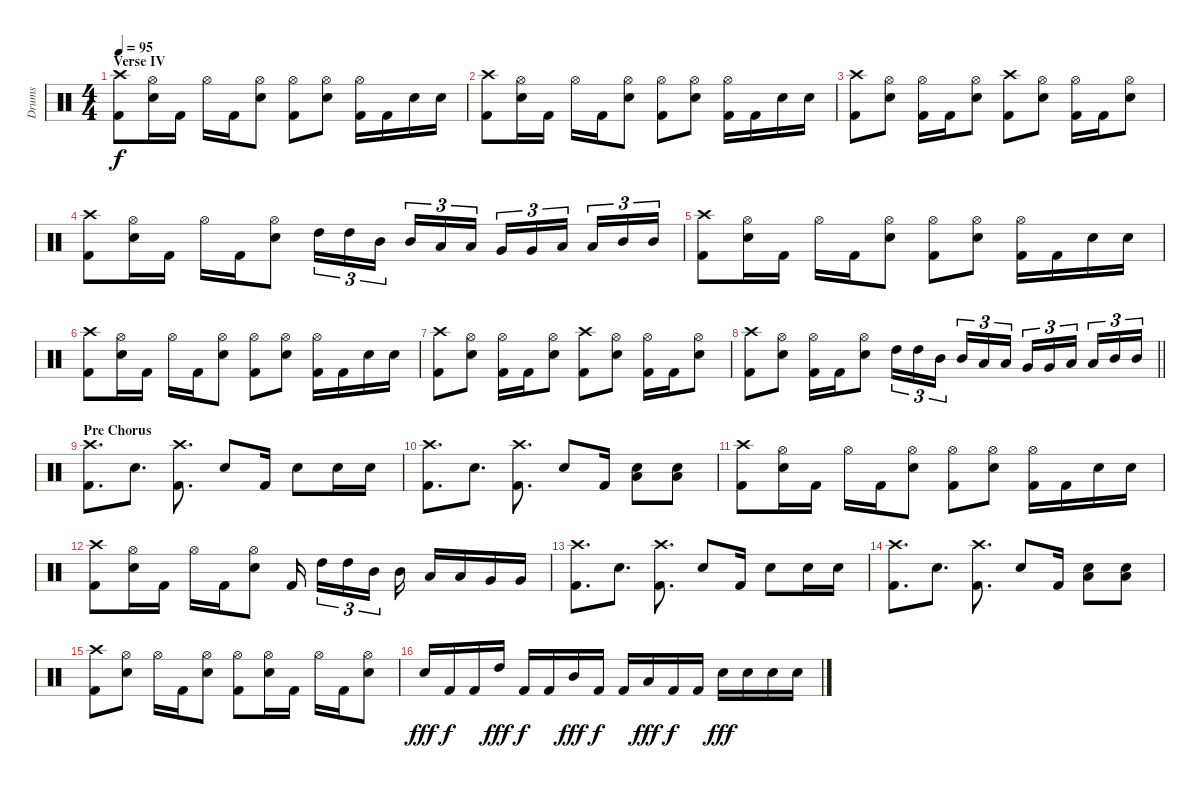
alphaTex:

\track ("Drums" "Drums") {instrument percussion}
\staff {score}
\articulation defaults
\ts (4 4)
\section ("" "Verse IV")
\tempo 95
\clef neutral
\ks c
("Crash high (hit)" "Kick (hit) 2").8{dy f} ("Hi-Hat (open)" "Snare (hit) 2").16 "Kick (hit) 2".16 "Hi-Hat (open)".16 "Kick (hit) 2".16 ("Hi-Hat (open)" "Snare (hit) 2").8 ("Hi-Hat (open)" "Kick (hit) 2").8 ("Hi-Hat (open)" "Snare (hit) 2").8 ("Hi-Hat (open)" "Kick (hit) 2").16 "Kick (hit) 2".16 "Snare (hit) 2".16 "Snare (hit) 2".16 |
("Crash high (hit)" "Kick (hit) 2").8 ("Hi-Hat (open)" "Snare (hit) 2").16 "Kick (hit) 2".16 "Hi-Hat (open)".16 "Kick (hit) 2".16 ("Hi-Hat (open)" "Snare (hit) 2").8 ("Hi-Hat (open)" "Kick (hit) 2").8 ("Hi-Hat (open)" "Snare (hit) 2").8 ("Hi-Hat (open)" "Kick (hit) 2").16 "Kick (hit) 2".16 "Snare (hit) 2".16 "Snare (hit) 2".16 |
("Crash high (hit)" "Kick (hit) 2").8 ("Hi-Hat (open)" "Snare (hit) 2").8 ("Hi-Hat (open)" "Kick (hit) 2").16 "Kick (hit) 2".16 ("Hi-Hat (open)" "Snare (hit) 2").8 ("Crash high (hit)" "Kick (hit) 2").8 ("Hi-Hat (open)" "Snare (hit) 2").8 ("Hi-Hat (open)" "Kick (hit) 2").16 "Kick (hit) 2".16 ("Hi-Hat (open)" "Snare (hit) 2").8 |
("Crash high (hit)" "Kick (hit) 2").8 ("Hi-Hat (open)" "Snare (hit) 2").16 "Kick (hit) 2".16 "Hi-Hat (open)".16 "Kick (hit) 2".16 ("Hi-Hat (open)" "Snare (hit) 2").8 "High Tom (hit)".16{tu (3 2)} "High Tom (hit)".16{tu (3 2)} "Mid Tom (hit)".16{tu (3 2) beam splitsecondary} "Mid Tom (hit)".16{tu (3 2)} "Low Tom (hit)".16{tu (3 2)} "Low Tom (hit)".16{tu (3 2)} "Very Low Tom (hit)".16{tu (3 2)} "Very Low Tom (hit)".16{tu (3 2)} "Low Tom (hit)".16{tu (3 2) beam splitsecondary} "Low Tom (hit)".16{tu (3 2)} "Mid Tom (hit)".16{tu (3 2)} "Mid Tom (hit)".16{tu (3 2)} |
("Crash high (hit)" "Kick (hit) 2").8 ("Hi-Hat (open)" "Snare (hit) 2").16 "Kick (hit) 2".16 "Hi-Hat (open)".16 "Kick (hit) 2".16 ("Hi-Hat (open)" "Snare (hit) 2").8 ("Hi-Hat (open)" "Kick (hit) 2").8 ("Hi-Hat (open)" "Snare (hit) 2").8 ("Hi-Hat (open)" "Kick (hit) 2").16 "Kick (hit) 2".16 "Snare (hit) 2".16 "Snare (hit) 2".16 |
("Crash high (hit)" "Kick (hit) 2").8 ("Hi-Hat (open)" "Snare (hit) 2").16 "Kick (hit) 2".16 "Hi-Hat (open)".16 "Kick (hit) 2".16 ("Hi-Hat (open)" "Snare (hit) 2").8 ("Hi-Hat (open)" "Kick (hit) 2").8 ("Hi-Hat (open)" "Snare (hit) 2").8 ("Hi-Hat (open)" "Kick (hit) 2").16 "Kick (hit) 2".16 "Snare (hit) 2".16 "Snare (hit) 2".16 |
("Crash high (hit)" "Kick (hit) 2").8 ("Hi-Hat (open)" "Snare (hit) 2").8 ("Hi-Hat (open)" "Kick (hit) 2").16 "Kick (hit) 2".16 ("Hi-Hat (open)" "Snare (hit) 2").8 ("Crash high (hit)" "Kick (hit) 2").8 ("Hi-Hat (open)" "Snare (hit) 2").8 ("Hi-Hat (open)" "Kick (hit) 2").16 "Kick (hit) 2".16 ("Hi-Hat (open)" "Snare (hit) 2").8 |
\barLineRight lightlight
("Crash high (hit)" "Kick (hit) 2").8 ("Hi-Hat (open)" "Snare (hit) 2").8 ("Hi-Hat (open)" "Kick (hit) 2").16 "Kick (hit) 2".16 ("Hi-Hat (open)" "Snare (hit) 2").8 "High Tom (hit)".16{tu (3 2)} "High Tom (hit)".16{tu (3 2)} "Mid Tom (hit)".16{tu (3 2) beam splitsecondary} "Mid Tom (hit)".16{tu (3 2)} "Low Tom (hit)".16{tu (3 2)} "Low Tom (hit)".16{tu (3 2)} "Very Low Tom (hit)".16{tu (3 2)} "Very Low Tom (hit)".16{tu (3 2)} "Low Tom (hit)".16{tu (3 2) beam splitsecondary} "Low Tom (hit)".16{tu (3 2)} "Mid Tom (hit)".16{tu (3 2)} "Mid Tom (hit)".16{tu (3 2)} |
\section ("" "Pre Chorus")
("Kick (hit) 2" "Crash high (hit)").8{d} "Snare (hit) 2".8{d} ("Kick (hit) 2" "Crash high (hit)").8{d} "Snare (hit) 2".8 "Kick (hit) 2".16 "Snare (hit) 2".8 "Snare (hit) 2".16 "Snare (hit) 2".16 |
("Kick (hit) 2" "Crash high (hit)").8{d} "Snare (hit) 2".8{d} ("Kick (hit) 2" "Crash high (hit)").8{d} "Snare (hit) 2".8 "Kick (hit) 2".16 ("Snare (hit) 2" "Low Tom (hit)").8 ("Snare (hit) 2" "Low Tom (hit)").8 |
("Crash high (hit)" "Kick (hit) 2").8 ("Hi-Hat (open)" "Snare (hit) 2").16 "Kick (hit) 2".16 "Hi-Hat (open)".16 "Kick (hit) 2".16 ("Hi-Hat (open)" "Snare (hit) 2").8 ("Hi-Hat (open)" "Kick (hit) 2").8 ("Hi-Hat (open)" "Snare (hit) 2").8 ("Hi-Hat (open)" "Kick (hit) 2").16 "Kick (hit) 2".16 "Snare (hit) 2".16 "Snare (hit) 2".16 |
("Crash high (hit)" "Kick (hit) 2").8 ("Hi-Hat (open)" "Snare (hit) 2").16 "Kick (hit) 2".16 "Hi-Hat (open)".16 "Kick (hit) 2".16 ("Hi-Hat (open)" "Snare (hit) 2").8 "Kick (hit) 2".16{beam splitsecondary} "High Tom (hit)".16{tu (3 2)} "High Tom (hit)".16{tu (3 2)} "Mid Tom (hit)".16{tu (3 2) beam splitsecondary} "Mid Tom (hit)".16 "Low Tom (hit)".16 "Low Tom (hit)".16 "Very Low Tom (hit)".16 "Very Low Tom (hit)".16 |
("Kick (hit) 2" "Crash high (hit)").8{d} "Snare (hit) 2".8{d} ("Kick (hit) 2" "Crash high (hit)").8{d} "Snare (hit) 2".8 "Kick (hit) 2".16 "Snare (hit) 2".8 "Snare (hit) 2".16 "Snare (hit) 2".16 |
("Kick (hit) 2" "Crash high (hit)").8{d} "Snare (hit) 2".8{d} ("Kick (hit) 2" "Crash high (hit)").8{d} "Snare (hit) 2".8 "Kick (hit) 2".16 ("Snare (hit) 2" "Low Tom (hit)").8 ("Snare (hit) 2" "Low Tom (hit)").8 |
("Crash high (hit)" "Kick (hit) 2").8 ("Hi-Hat (open)" "Snare (hit) 2").8 "Hi-Hat (open)".16 "Kick (hit) 2".16 ("Hi-Hat (open)" "Snare (hit) 2").8 ("Hi-Hat (open)" "Kick (hit) 2").8 ("Hi-Hat (open)" "Snare (hit) 2").16 "Kick (hit) 2".16 "Hi-Hat (open)".16 "Kick (hit) 2".16 ("Hi-Hat (open)" "Snare (hit) 2").8 |
"Snare (hit) 2".16{dy fff} "Kick (hit) 2".16{dy f} "Kick (hit) 2".16 "High Tom (hit)".16{dy fff} "Kick (hit) 2".16{dy f} "Kick (hit) 2".16 "Mid Tom (hit)".16{dy fff} "Kick (hit) 2".16{dy f} "Kick (hit) 2".16 "Low Tom (hit)".16{dy fff} "Kick (hit) 2".16{dy f} "Kick (hit) 2".16 "Snare (hit) 2".16{dy fff} "Snare (hit) 2".16 "Snare (hit) 2".16 "Snare (hit) 2".16
